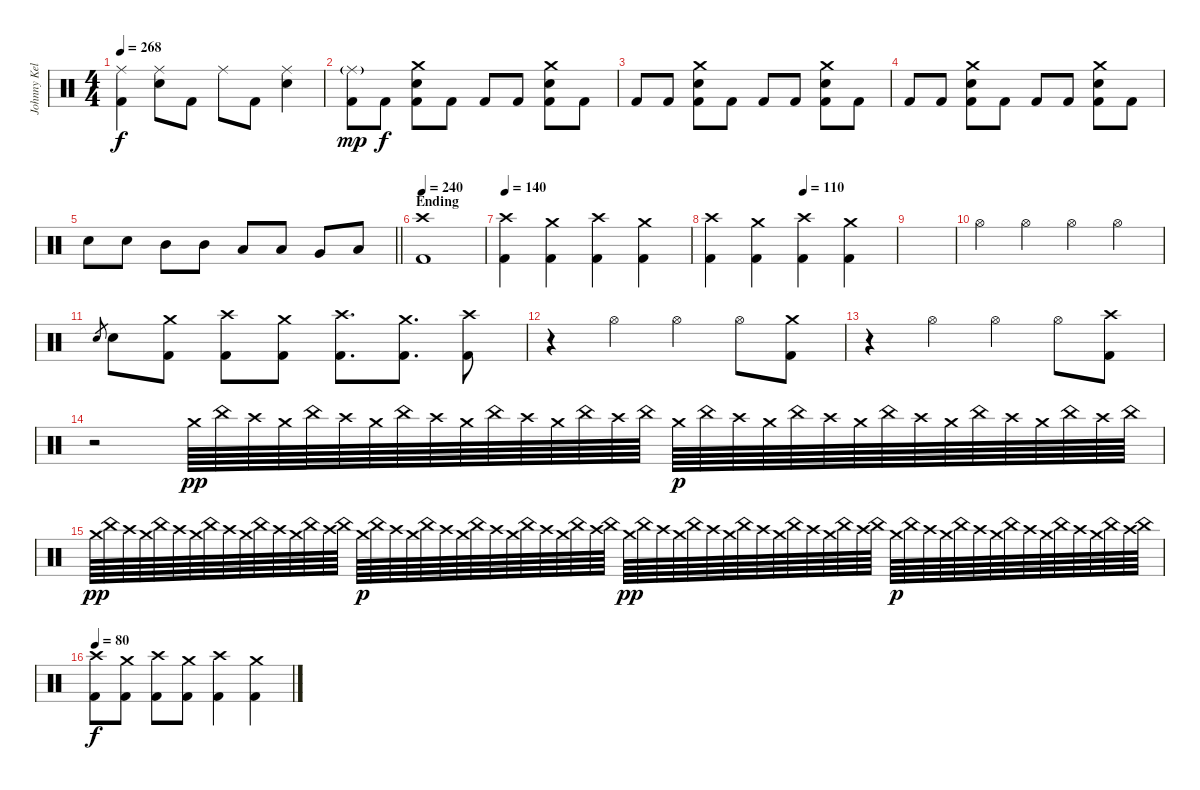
\track ("Johnny Kelly" "Johnny Kel") {instrument percussion}
\staff {score}
\articulation defaults
\ts (4 4)
\tempo 268
\clef neutral
\ks c
("Ride (middle)" "Kick (hit) 2").4{dy f} ("Ride (middle)" "Electric Snare (hit)").8 "Kick (hit) 2".8 "Ride (middle)".8 "Kick (hit) 2".8 ("Ride (middle)" "Electric Snare (hit)").4 |
("Ride (middle)"{g} "Kick (hit) 2").8{dy mp} "Kick (hit) 2".8{dy f} ("Crash medium (hit)" "Electric Snare (hit)" "Kick (hit) 2").8 "Kick (hit) 2".8 "Kick (hit) 2".8 "Kick (hit) 2".8 ("Crash medium (hit)" "Electric Snare (hit)" "Kick (hit) 2").8 "Kick (hit) 2".8 |
"Kick (hit) 2".8 "Kick (hit) 2".8 ("Crash medium (hit)" "Electric Snare (hit)" "Kick (hit) 2").8 "Kick (hit) 2".8 "Kick (hit) 2".8 "Kick (hit) 2".8 ("Crash medium (hit)" "Electric Snare (hit)" "Kick (hit) 2").8 "Kick (hit) 2".8 |
"Kick (hit) 2".8 "Kick (hit) 2".8 ("Crash medium (hit)" "Electric Snare (hit)" "Kick (hit) 2").8 "Kick (hit) 2".8 "Kick (hit) 2".8 "Kick (hit) 2".8 ("Crash medium (hit)" "Electric Snare (hit)" "Kick (hit) 2").8 "Kick (hit) 2".8 |
\barLineRight lightlight "Electric Snare (hit)".8 "Electric Snare (hit)".8 "Mid Tom (hit)".8 "Mid Tom (hit)".8 "Low Tom (hit)".8 "Low Tom (hit)".8 "Very Low Tom (hit)".8 "Low Floor Tom (hit)".8
|
\section ("" "Ending")
\tempo 240
("Crash high (hit)" "Kick (hit) 2").1 |
\tempo 140
("Crash high (hit)" "Kick (hit) 2").4 ("Crash medium (hit)" "Kick (hit) 2").4 ("Crash high (hit)" "Kick (hit) 2").4 ("Crash medium (hit)" "Kick (hit) 2").4 |
\tempo (110 0.5)
("Crash high (hit)" "Kick (hit) 2").4 ("Crash medium (hit)" "Kick (hit) 2").4 ("Crash high (hit)" "Kick (hit) 2").4 ("Crash medium (hit)" "Kick (hit) 2").4 |
|
"Hi-Hat (open)".4 "Hi-Hat (open)".4 "Hi-Hat (open)".4 "Hi-Hat (open)".4 |
"Electric Snare (hit)".8{gr} "Electric Snare (hit)".8 ("Crash medium (hit)" "Kick (hit) 2").8 ("Crash high (hit)" "Kick (hit) 2").8 ("Crash medium (hit)" "Kick (hit) 2").8 ("Crash high (hit)" "Kick (hit) 2").8{d} ("Crash medium (hit)" "Kick (hit) 2").8{d} ("Crash high (hit)" "Kick (hit) 2").8 |
r.4 "Hi-Hat (open)".4 "Hi-Hat (open)".4 "Hi-Hat (open)".8 ("Crash medium (hit)" "Kick (hit) 2").8 |
r.4 "Hi-Hat (open)".4 "Hi-Hat (open)".4 "Hi-Hat (open)".8 ("Crash high (hit)" "Kick (hit) 2").8 |
r.2 "Crash medium (hit)".64{dy pp} "China (hit)".64 "Crash high (hit)".64 "Crash medium (hit)".64 "China (hit)".64 "Crash high (hit)".64 "Crash medium (hit)".64 "China (hit)".64 "Crash high (hit)".64 "Crash medium (hit)".64 "China (hit)".64 "Crash high (hit)".64 "Crash medium (hit)".64 "China (hit)".64 "Crash high (hit)".64 "China (hit)".64 "Crash medium (hit)".64{dy p} "China (hit)".64 "Crash high (hit)".64 "Crash medium (hit)".64 "China (hit)".64 "Crash high (hit)".64 "Crash medium (hit)".64 "China (hit)".64 "Crash high (hit)".64 "Crash medium (hit)".64 "China (hit)".64 "Crash high (hit)".64 "Crash medium (hit)".64 "China (hit)".64 "Crash high (hit)".64 "China (hit)".64 |
"Crash medium (hit)".64{dy pp} "China (hit)".64 "Crash high (hit)".64 "Crash medium (hit)".64 "China (hit)".64 "Crash high (hit)".64 "Crash medium (hit)".64 "China (hit)".64 "Crash high (hit)".64 "Crash medium (hit)".64 "China (hit)".64 "Crash high (hit)".64 "Crash medium (hit)".64 "China (hit)".64 "Crash high (hit)".64 "China (hit)".64 "Crash medium (hit)".64{dy p} "China (hit)".64 "Crash high (hit)".64 "Crash medium (hit)".64 "China (hit)".64 "Crash high (hit)".64 "Crash medium (hit)".64 "China (hit)".64 "Crash high (hit)".64 "Crash medium (hit)".64 "China (hit)".64 "Crash high (hit)".64 "Crash medium (hit)".64 "China (hit)".64 "Crash high (hit)".64 "China (hit)".64 "Crash medium (hit)".64{dy pp} "China (hit)".64 "Crash high (hit)".64 "Crash medium (hit)".64 "China (hit)".64 "Crash high (hit)".64 "Crash medium (hit)".64 "China (hit)".64 "Crash high (hit)".64 "Crash medium (hit)".64 "China (hit)".64 "Crash high (hit)".64 "Crash medium (hit)".64 "China (hit)".64 "Crash high (hit)".64 "China (hit)".64 "Crash medium (hit)".64{dy p} "China (hit)".64 "Crash high (hit)".64 "Crash medium (hit)".64 "China (hit)".64 "Crash high (hit)".64 "Crash medium (hit)".64 "China (hit)".64 "Crash high (hit)".64 "Crash medium (hit)".64 "China (hit)".64 "Crash high (hit)".64 "Crash medium (hit)".64 "China (hit)".64 "Crash high (hit)".64 "China (hit)".64 |
\tempo 80
("Crash high (hit)" "Kick (hit) 2").8{dy f} ("Crash medium (hit)" "Kick (hit) 2").8 ("Crash high (hit)" "Kick (hit) 2").8 ("Crash medium (hit)" "Kick (hit) 2").8 ("Crash high (hit)" "Kick (hit) 2").4 ("Crash medium (hit)" "Kick (hit) 2").4
